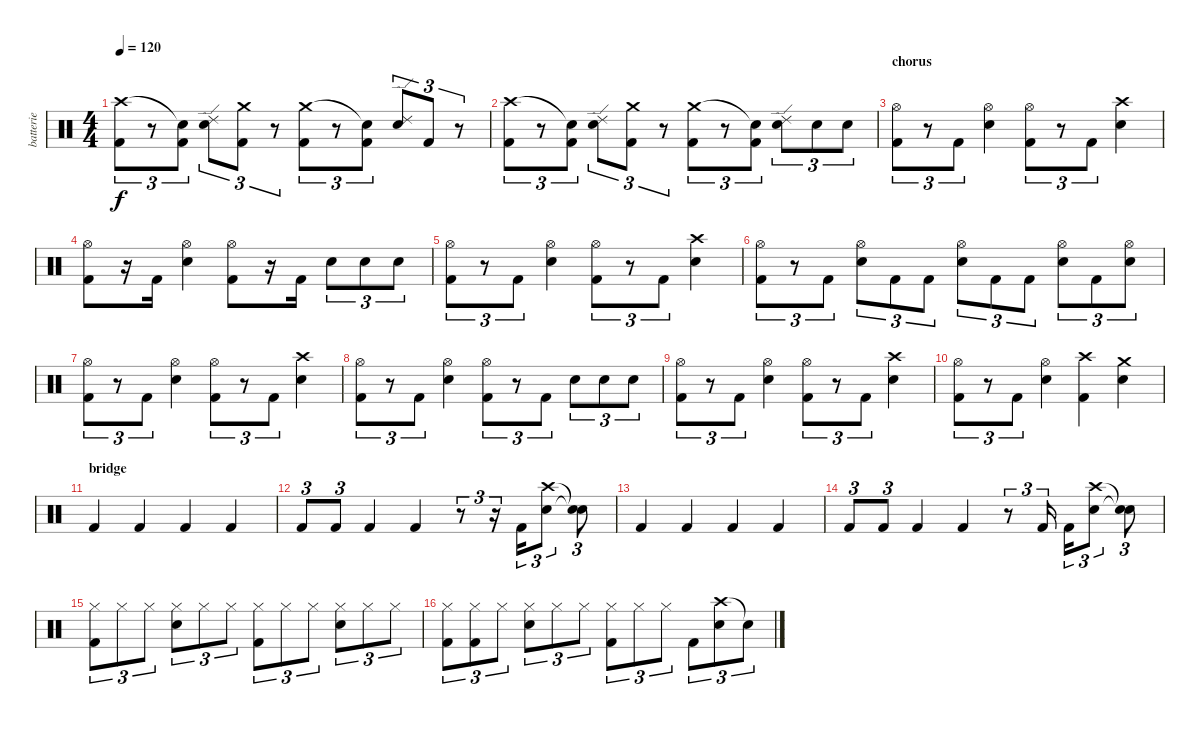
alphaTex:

\track ("batterie" "batterie") {instrument percussion}
\staff {score}
\articulation defaults
\ts (4 4)
\tempo 120
\clef neutral
\ks c
("Crash high (hit)" "Kick (hit) 2").8{tu (3 2) dy f} r.8{tu (3 2)} ("Snare (hit)"{t} "Kick (hit) 2").8{tu (3 2)} ("Snare (hit) 2" "Ride (edge) 2").8{tu (3 2)} ("Crash medium (hit)" "Kick (hit) 2").8{tu (3 2)} r.8{tu (3 2)} ("Crash medium (hit)" "Kick (hit) 2").8{tu (3 2)} r.8{tu (3 2)} ("Snare (hit)"{t} "Kick (hit) 2").8{tu (3 2)} ("Snare (hit) 2" "Ride (edge) 2").8{tu (3 2)} "Kick (hit) 2".8{tu (3 2)} r.8{tu (3 2)} |
("Crash high (hit)" "Kick (hit) 2").8{tu (3 2)} r.8{tu (3 2)} ("Snare (hit)"{t} "Kick (hit) 2").8{tu (3 2)} ("Snare (hit) 2" "Ride (edge) 2").8{tu (3 2)} ("Crash medium (hit)" "Kick (hit) 2").8{tu (3 2)} r.8{tu (3 2)} ("Crash medium (hit)" "Kick (hit) 2").8{tu (3 2)} r.8{tu (3 2)} ("Snare (hit)"{t} "Kick (hit) 2").8{tu (3 2)} ("Snare (hit) 2" "Ride (edge) 2").8{tu (3 2)} "Snare (hit) 2".8{tu (3 2)} "Snare (hit) 2".8{tu (3 2)} |
\section ("" "chorus")
("Kick (hit) 2" "Hi-Hat (open)").8{tu (3 2)} r.8{tu (3 2)} "Kick (hit) 2".8{tu (3 2)} ("Snare (hit) 2" "Hi-Hat (open)").4 ("Kick (hit) 2" "Hi-Hat (open)").8{tu (3 2)} r.8{tu (3 2)} "Kick (hit) 2".8{tu (3 2)} ("Crash high (hit)" "Snare (hit) 2").4 |
("Kick (hit) 2" "Hi-Hat (open)").8 r.16 "Kick (hit) 2".16 ("Snare (hit) 2" "Hi-Hat (open)").4 ("Kick (hit) 2" "Hi-Hat (open)").8 r.16 "Kick (hit) 2".16 "Snare (hit) 2".8{tu (3 2)} "Snare (hit) 2".8{tu (3 2)} "Snare (hit) 2".8{tu (3 2)} |
("Kick (hit) 2" "Hi-Hat (open)").8{tu (3 2)} r.8{tu (3 2)} "Kick (hit) 2".8{tu (3 2)} ("Snare (hit) 2" "Hi-Hat (open)").4 ("Kick (hit) 2" "Hi-Hat (open)").8{tu (3 2)} r.8{tu (3 2)} "Kick (hit) 2".8{tu (3 2)} ("Crash high (hit)" "Snare (hit) 2").4 |
("Kick (hit) 2" "Hi-Hat (open)").8{tu (3 2)} r.8{tu (3 2)} "Kick (hit) 2".8{tu (3 2)} ("Snare (hit) 2" "Hi-Hat (open)").8{tu (3 2)} "Kick (hit) 2".8{tu (3 2)} "Kick (hit) 2".8{tu (3 2)} ("Snare (hit) 2" "Hi-Hat (open)").8{tu (3 2)} "Kick (hit) 2".8{tu (3 2)} "Kick (hit) 2".8{tu (3 2)} ("Snare (hit) 2" "Hi-Hat (open)").8{tu (3 2)} "Kick (hit) 2".8{tu (3 2)} ("Snare (hit) 2" "Hi-Hat (open)").8{tu (3 2)} |
("Kick (hit) 2" "Hi-Hat (open)").8{tu (3 2)} r.8{tu (3 2)} "Kick (hit) 2".8{tu (3 2)} ("Snare (hit) 2" "Hi-Hat (open)").4 ("Kick (hit) 2" "Hi-Hat (open)").8{tu (3 2)} r.8{tu (3 2)} "Kick (hit) 2".8{tu (3 2)} ("Crash high (hit)" "Snare (hit) 2").4 |
("Kick (hit) 2" "Hi-Hat (open)").8{tu (3 2)} r.8{tu (3 2)} "Kick (hit) 2".8{tu (3 2)} ("Snare (hit) 2" "Hi-Hat (open)").4 ("Kick (hit) 2" "Hi-Hat (open)").8{tu (3 2)} r.8{tu (3 2)} "Kick (hit) 2".8{tu (3 2)} "Snare (hit) 2".8{tu (3 2)} "Snare (hit) 2".8{tu (3 2)} "Snare (hit) 2".8{tu (3 2)} |
("Kick (hit) 2" "Hi-Hat (open)").8{tu (3 2)} r.8{tu (3 2)} "Kick (hit) 2".8{tu (3 2)} ("Snare (hit) 2" "Hi-Hat (open)").4 ("Kick (hit) 2" "Hi-Hat (open)").8{tu (3 2)} r.8{tu (3 2)} "Kick (hit) 2".8{tu (3 2)} ("Crash high (hit)" "Snare (hit) 2").4 |
("Kick (hit) 2" "Hi-Hat (open)").8{tu (3 2)} r.8{tu (3 2)} "Kick (hit) 2".8{tu (3 2)} ("Snare (hit) 2" "Hi-Hat (open)").4 ("Crash high (hit)" "Kick (hit) 2").4 ("Crash medium (hit)" "Snare (hit) 2").4 |
\section ("" "bridge")
"Kick (hit) 2".4 "Kick (hit) 2".4 "Kick (hit) 2".4 "Kick (hit) 2".4 |
"Kick (hit) 2".8{tu (3 2)} "Kick (hit) 2".8{tu (3 2)} "Kick (hit) 2".4 "Kick (hit) 2".4 r.8{tu (3 2)} r.16{tu (3 2)} "Kick (hit) 2".16{tu (3 2)} ("Crash high (hit)" "Snare (hit) 2").8{tu (3 2)} ("Snare (hit)"{t} "Snare (hit)"{t}).8{tu (3 2)} |
"Kick (hit) 2".4 "Kick (hit) 2".4 "Kick (hit) 2".4 "Kick (hit) 2".4 |
"Kick (hit) 2".8{tu (3 2)} "Kick (hit) 2".8{tu (3 2)} "Kick (hit) 2".4 "Kick (hit) 2".4 r.8{tu (3 2)} "Kick (hit) 2".16{tu (3 2)} "Kick (hit) 2".16{tu (3 2)} ("Crash high (hit)" "Snare (hit) 2").8{tu (3 2)} ("Snare (hit)"{t} "Snare (hit)"{t}).8{tu (3 2)} |
("Kick (hit) 2" "Hi-Hat (closed)").8{tu (3 2)} "Hi-Hat (closed)".8{tu (3 2)} "Hi-Hat (closed)".8{tu (3 2)} ("Snare (hit) 2" "Hi-Hat (closed)").8{tu (3 2)} "Hi-Hat (closed)".8{tu (3 2)} "Hi-Hat (closed)".8{tu (3 2)} ("Kick (hit) 2" "Hi-Hat (closed)").8{tu (3 2)} "Hi-Hat (closed)".8{tu (3 2)} "Hi-Hat (closed)".8{tu (3 2)} ("Snare (hit) 2" "Hi-Hat (closed)").8{tu (3 2)} "Hi-Hat (closed)".8{tu (3 2)} "Hi-Hat (closed)".8{tu (3 2)} |
("Kick (hit) 2" "Hi-Hat (closed)").8{tu (3 2)} ("Kick (hit) 2" "Hi-Hat (closed)").8{tu (3 2)} "Hi-Hat (closed)".8{tu (3 2)} ("Snare (hit) 2" "Hi-Hat (closed)").8{tu (3 2)} "Hi-Hat (closed)".8{tu (3 2)} "Hi-Hat (closed)".8{tu (3 2)} ("Kick (hit) 2" "Hi-Hat (closed)").8{tu (3 2)} "Hi-Hat (closed)".8{tu (3 2)} "Hi-Hat (closed)".8{tu (3 2)} "Kick (hit) 2".8{tu (3 2)} ("Crash high (hit)" "Snare (hit) 2").8{tu (3 2)} "Snare (hit)"{t}.8{tu (3 2)}
